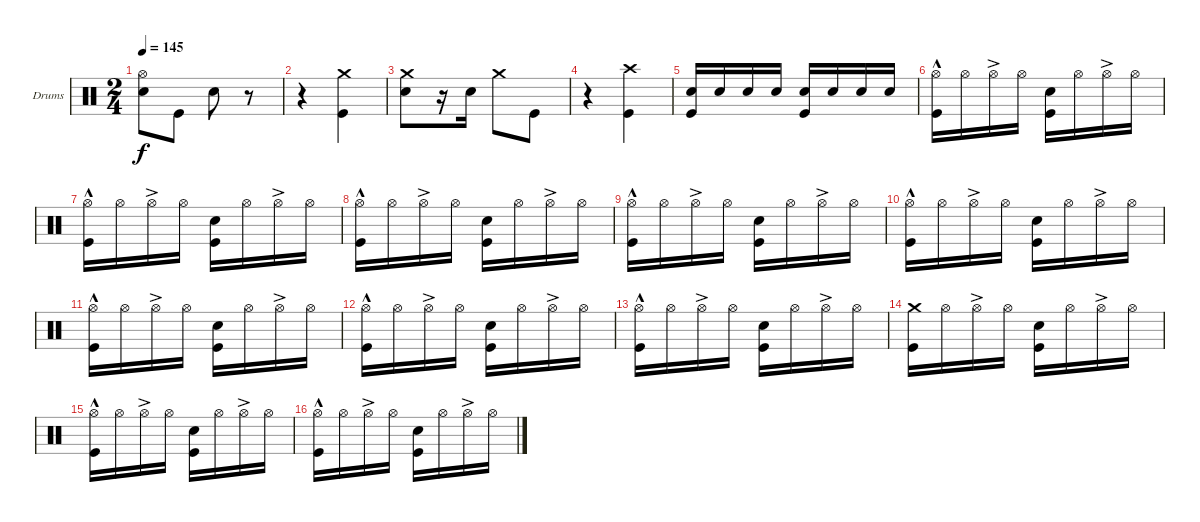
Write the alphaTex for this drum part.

\bracketExtendMode groupsimilarinstruments
\firstSystemTrackNameOrientation horizontal
\otherSystemsTrackNameOrientation horizontal
\track ("Drumkit" "Drums") {instrument percussion}
\staff {score}
\articulation defaults
\ts (2 4)
\tempo 145
\clef neutral
\ks c
("Snare (hit) 2" "Hi-Hat (open)").8{dy f} "Kick (hit)".8 "Snare (hit) 2".8 r.8 |
r.4 ("Kick (hit)" "Crash medium (hit)").4 |
("Snare (hit) 2" "Crash medium (hit)").8 r.16 "Snare (hit) 2".16 "Crash medium (hit)".8 "Kick (hit)".8 |
r.4 ("Kick (hit)" "Crash high (hit)").4 |
("Snare (hit) 2" "Kick (hit)").16 "Snare (hit) 2".16 "Snare (hit) 2".16 "Snare (hit) 2".16 ("Snare (hit) 2" "Kick (hit)").16 "Snare (hit) 2".16 "Snare (hit) 2".16 "Snare (hit) 2".16 |
("Hi-Hat (open)"{hac} "Kick (hit)").16 "Hi-Hat (open)".16 "Hi-Hat (open)"{ac}.16 "Hi-Hat (open)".16 ("Snare (hit) 2" "Kick (hit)").16 "Hi-Hat (open)".16 "Hi-Hat (open)"{ac}.16 "Hi-Hat (open)".16 |
("Hi-Hat (open)"{hac} "Kick (hit)").16 "Hi-Hat (open)".16 "Hi-Hat (open)"{ac}.16 "Hi-Hat (open)".16 ("Snare (hit) 2" "Kick (hit)").16 "Hi-Hat (open)".16 "Hi-Hat (open)"{ac}.16 "Hi-Hat (open)".16 |
("Hi-Hat (open)"{hac} "Kick (hit)").16 "Hi-Hat (open)".16 "Hi-Hat (open)"{ac}.16 "Hi-Hat (open)".16 ("Snare (hit) 2" "Kick (hit)").16 "Hi-Hat (open)".16 "Hi-Hat (open)"{ac}.16 "Hi-Hat (open)".16 |
("Hi-Hat (open)"{hac} "Kick (hit)").16 "Hi-Hat (open)".16 "Hi-Hat (open)"{ac}.16 "Hi-Hat (open)".16 ("Snare (hit) 2" "Kick (hit)").16 "Hi-Hat (open)".16 "Hi-Hat (open)"{ac}.16 "Hi-Hat (open)".16 |
("Hi-Hat (open)"{hac} "Kick (hit)").16 "Hi-Hat (open)".16 "Hi-Hat (open)"{ac}.16 "Hi-Hat (open)".16 ("Snare (hit) 2" "Kick (hit)").16 "Hi-Hat (open)".16 "Hi-Hat (open)"{ac}.16 "Hi-Hat (open)".16 |
("Hi-Hat (open)"{hac} "Kick (hit)").16 "Hi-Hat (open)".16 "Hi-Hat (open)"{ac}.16 "Hi-Hat (open)".16 ("Snare (hit) 2" "Kick (hit)").16 "Hi-Hat (open)".16 "Hi-Hat (open)"{ac}.16 "Hi-Hat (open)".16 |
("Hi-Hat (open)"{hac} "Kick (hit)").16 "Hi-Hat (open)".16 "Hi-Hat (open)"{ac}.16 "Hi-Hat (open)".16 ("Snare (hit) 2" "Kick (hit)").16 "Hi-Hat (open)".16 "Hi-Hat (open)"{ac}.16 "Hi-Hat (open)".16 |
("Hi-Hat (open)"{hac} "Kick (hit)").16 "Hi-Hat (open)".16 "Hi-Hat (open)"{ac}.16 "Hi-Hat (open)".16 ("Snare (hit) 2" "Kick (hit)").16 "Hi-Hat (open)".16 "Hi-Hat (open)"{ac}.16 "Hi-Hat (open)".16 |
("Kick (hit)" "Crash medium (hit)").16 "Hi-Hat (open)".16 "Hi-Hat (open)"{ac}.16 "Hi-Hat (open)".16 ("Snare (hit) 2" "Kick (hit)").16 "Hi-Hat (open)".16 "Hi-Hat (open)"{ac}.16 "Hi-Hat (open)".16 |
("Hi-Hat (open)"{hac} "Kick (hit)").16 "Hi-Hat (open)".16 "Hi-Hat (open)"{ac}.16 "Hi-Hat (open)".16 ("Snare (hit) 2" "Kick (hit)").16 "Hi-Hat (open)".16 "Hi-Hat (open)"{ac}.16 "Hi-Hat (open)".16 |
("Hi-Hat (open)"{hac} "Kick (hit)").16 "Hi-Hat (open)".16 "Hi-Hat (open)"{ac}.16 "Hi-Hat (open)".16 ("Snare (hit) 2" "Kick (hit)").16 "Hi-Hat (open)".16 "Hi-Hat (open)"{ac}.16 "Hi-Hat (open)".16
